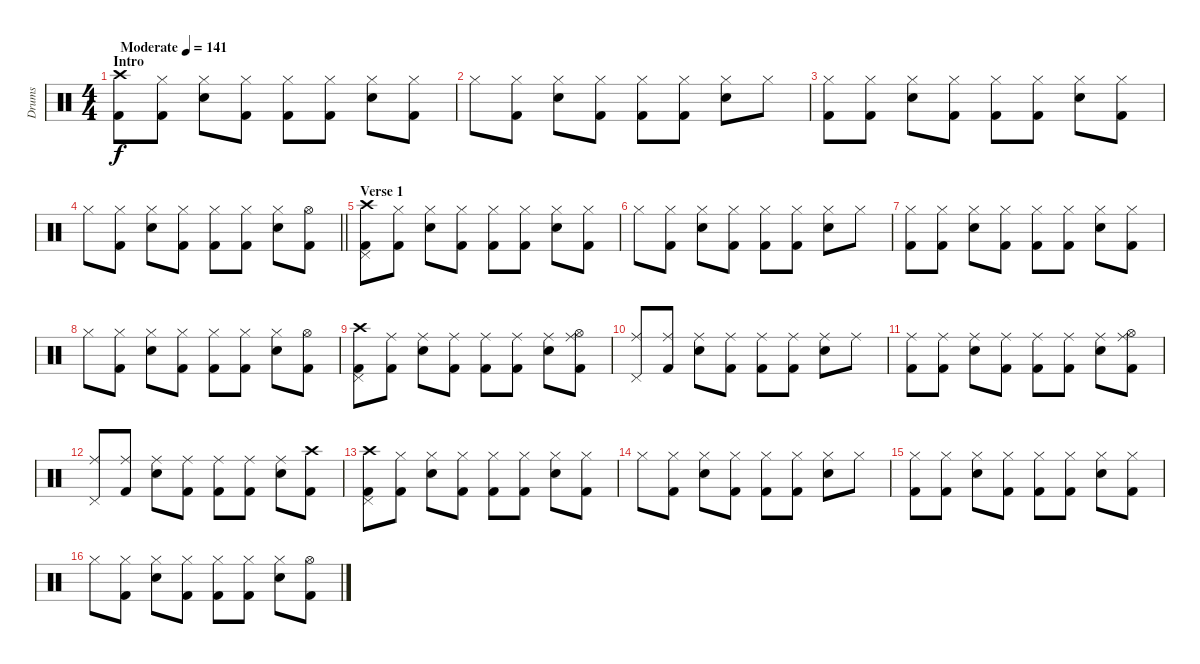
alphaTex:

\track ("Drums" "Drums") {instrument percussion}
\staff {score}
\articulation defaults
\ts (4 4)
\section ("" "Intro")
\tempo (141 "Moderate")
\clef neutral
\ks c
("Crash high (hit)" "Kick (hit) 2").8{dy f} ("Hi-Hat (closed)" "Kick (hit) 2").8 ("Hi-Hat (closed)" "Electric Snare (hit)").8 ("Hi-Hat (closed)" "Kick (hit) 2").8 ("Hi-Hat (closed)" "Kick (hit) 2").8 ("Hi-Hat (closed)" "Kick (hit) 2").8 ("Hi-Hat (closed)" "Electric Snare (hit)").8 ("Hi-Hat (closed)" "Kick (hit) 2").8 |
"Hi-Hat (closed)".8 ("Hi-Hat (closed)" "Kick (hit) 2").8 ("Hi-Hat (closed)" "Electric Snare (hit)").8 ("Hi-Hat (closed)" "Kick (hit) 2").8 ("Hi-Hat (closed)" "Kick (hit) 2").8 ("Hi-Hat (closed)" "Kick (hit) 2").8 ("Hi-Hat (closed)" "Electric Snare (hit)").8 "Hi-Hat (closed)".8 |
("Hi-Hat (closed)" "Kick (hit) 2").8 ("Hi-Hat (closed)" "Kick (hit) 2").8 ("Hi-Hat (closed)" "Electric Snare (hit)").8 ("Hi-Hat (closed)" "Kick (hit) 2").8 ("Hi-Hat (closed)" "Kick (hit) 2").8 ("Hi-Hat (closed)" "Kick (hit) 2").8 ("Hi-Hat (closed)" "Electric Snare (hit)").8 ("Hi-Hat (closed)" "Kick (hit) 2").8 |
\barLineRight lightlight "Hi-Hat (closed)".8
("Hi-Hat (closed)" "Kick (hit) 2").8 ("Hi-Hat (closed)" "Electric Snare (hit)").8 ("Hi-Hat (closed)" "Kick (hit) 2").8 ("Hi-Hat (closed)" "Kick (hit) 2").8 ("Hi-Hat (closed)" "Kick (hit) 2").8 ("Hi-Hat (closed)" "Electric Snare (hit)").8 ("Hi-Hat (open)" "Kick (hit) 2").8 |
\section ("" "Verse 1")
("Crash high (hit)" "Pedal Hi-Hat (hit)" "Kick (hit) 2").8 ("Hi-Hat (closed)" "Kick (hit) 2").8 ("Hi-Hat (closed)" "Electric Snare (hit)").8 ("Hi-Hat (closed)" "Kick (hit) 2").8 ("Hi-Hat (closed)" "Kick (hit) 2").8 ("Hi-Hat (closed)" "Kick (hit) 2").8 ("Hi-Hat (closed)" "Electric Snare (hit)").8 ("Hi-Hat (closed)" "Kick (hit) 2").8 |
"Hi-Hat (closed)".8 ("Hi-Hat (closed)" "Kick (hit) 2").8 ("Hi-Hat (closed)" "Electric Snare (hit)").8 ("Hi-Hat (closed)" "Kick (hit) 2").8 ("Hi-Hat (closed)" "Kick (hit) 2").8 ("Hi-Hat (closed)" "Kick (hit) 2").8 ("Hi-Hat (closed)" "Electric Snare (hit)").8 "Hi-Hat (closed)".8 |
("Hi-Hat (closed)" "Kick (hit) 2").8 ("Hi-Hat (closed)" "Kick (hit) 2").8 ("Hi-Hat (closed)" "Electric Snare (hit)").8 ("Hi-Hat (closed)" "Kick (hit) 2").8 ("Hi-Hat (closed)" "Kick (hit) 2").8 ("Hi-Hat (closed)" "Kick (hit) 2").8 ("Hi-Hat (closed)" "Electric Snare (hit)").8 ("Hi-Hat (closed)" "Kick (hit) 2").8 |
"Hi-Hat (closed)".8 ("Hi-Hat (closed)" "Kick (hit) 2").8 ("Hi-Hat (closed)" "Electric Snare (hit)").8 ("Hi-Hat (closed)" "Kick (hit) 2").8 ("Hi-Hat (closed)" "Kick (hit) 2").8 ("Hi-Hat (closed)" "Kick (hit) 2").8 ("Hi-Hat (closed)" "Electric Snare (hit)").8 ("Hi-Hat (open)" "Kick (hit) 2").8 |
("Crash high (hit)" "Pedal Hi-Hat (hit)" "Kick (hit) 2").8 ("Ride (middle)" "Kick (hit) 2").8 ("Ride (middle)" "Electric Snare (hit)").8 ("Ride (middle)" "Kick (hit) 2").8 ("Ride (middle)" "Kick (hit) 2").8 ("Ride (middle)" "Kick (hit) 2").8 ("Ride (middle)" "Electric Snare (hit)").8 ("Ride (middle)" "Hi-Hat (open)" "Kick (hit) 2").8 |
("Ride (middle)" "Pedal Hi-Hat (hit)").8 ("Ride (middle)" "Kick (hit) 2").8 ("Ride (middle)" "Electric Snare (hit)").8 ("Ride (middle)" "Kick (hit) 2").8 ("Ride (middle)" "Kick (hit) 2").8 ("Ride (middle)" "Kick (hit) 2").8 ("Ride (middle)" "Electric Snare (hit)").8 "Ride (middle)".8 |
("Ride (middle)" "Kick (hit) 2").8 ("Ride (middle)" "Kick (hit) 2").8 ("Ride (middle)" "Electric Snare (hit)").8 ("Ride (middle)" "Kick (hit) 2").8 ("Ride (middle)" "Kick (hit) 2").8 ("Ride (middle)" "Kick (hit) 2").8 ("Ride (middle)" "Electric Snare (hit)").8 ("Ride (middle)" "Hi-Hat (open)" "Kick (hit) 2").8 |
("Ride (middle)" "Pedal Hi-Hat (hit)").8 ("Ride (middle)" "Kick (hit) 2").8 ("Ride (middle)" "Electric Snare (hit)").8 ("Ride (middle)" "Kick (hit) 2").8 ("Ride (middle)" "Kick (hit) 2").8 ("Ride (middle)" "Kick (hit) 2").8 ("Ride (middle)" "Electric Snare (hit)").8 ("Crash high (hit)" "Kick (hit) 2").8 |
("Crash high (hit)" "Pedal Hi-Hat (hit)" "Kick (hit) 2").8 ("Hi-Hat (closed)" "Kick (hit) 2").8 ("Hi-Hat (closed)" "Electric Snare (hit)").8 ("Hi-Hat (closed)" "Kick (hit) 2").8 ("Hi-Hat (closed)" "Kick (hit) 2").8 ("Hi-Hat (closed)" "Kick (hit) 2").8 ("Hi-Hat (closed)" "Electric Snare (hit)").8 ("Hi-Hat (closed)" "Kick (hit) 2").8 |
"Hi-Hat (closed)".8 ("Hi-Hat (closed)" "Kick (hit) 2").8 ("Hi-Hat (closed)" "Electric Snare (hit)").8 ("Hi-Hat (closed)" "Kick (hit) 2").8 ("Hi-Hat (closed)" "Kick (hit) 2").8 ("Hi-Hat (closed)" "Kick (hit) 2").8 ("Hi-Hat (closed)" "Electric Snare (hit)").8 "Hi-Hat (closed)".8 |
("Hi-Hat (closed)" "Kick (hit) 2").8 ("Hi-Hat (closed)" "Kick (hit) 2").8 ("Hi-Hat (closed)" "Electric Snare (hit)").8 ("Hi-Hat (closed)" "Kick (hit) 2").8 ("Hi-Hat (closed)" "Kick (hit) 2").8 ("Hi-Hat (closed)" "Kick (hit) 2").8 ("Hi-Hat (closed)" "Electric Snare (hit)").8 ("Hi-Hat (closed)" "Kick (hit) 2").8 |
"Hi-Hat (closed)".8 ("Hi-Hat (closed)" "Kick (hit) 2").8 ("Hi-Hat (closed)" "Electric Snare (hit)").8 ("Hi-Hat (closed)" "Kick (hit) 2").8 ("Hi-Hat (closed)" "Kick (hit) 2").8 ("Hi-Hat (closed)" "Kick (hit) 2").8 ("Hi-Hat (closed)" "Electric Snare (hit)").8 ("Hi-Hat (open)" "Kick (hit) 2").8
